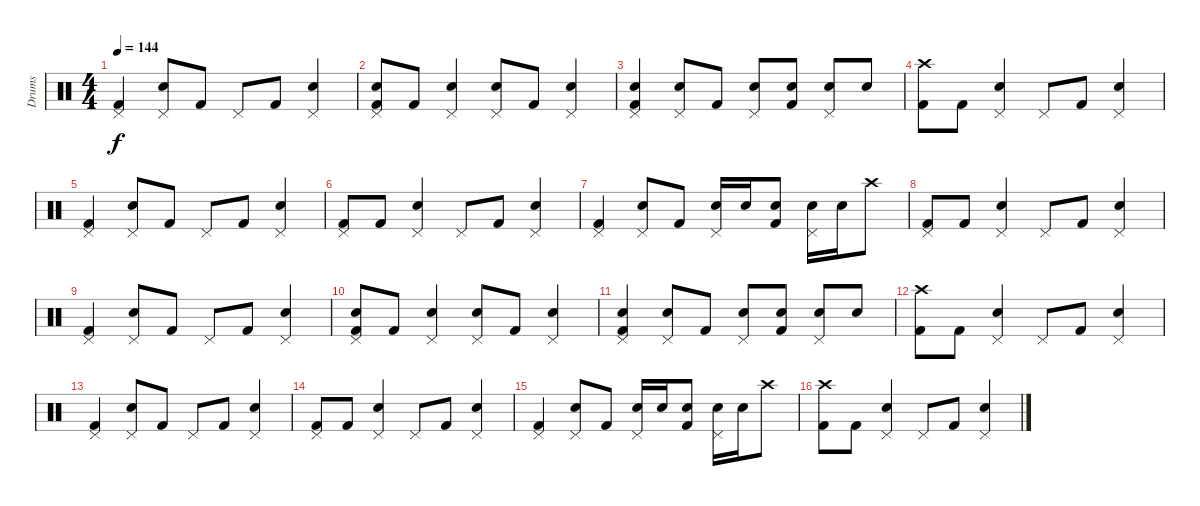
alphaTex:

\track ("Drums" "Drums") {instrument percussion}
\staff {score}
\articulation defaults
\ts (4 4)
\tempo 144
\clef neutral
\ks c
("Kick (hit) 2" "Pedal Hi-Hat (hit)").4{dy f} ("Electric Snare (hit)" "Pedal Hi-Hat (hit)").8 "Kick (hit) 2".8 "Pedal Hi-Hat (hit)".8 "Kick (hit) 2".8 ("Electric Snare (hit)" "Pedal Hi-Hat (hit)").4 |
("Electric Snare (hit)" "Pedal Hi-Hat (hit)" "Kick (hit) 2").8 "Kick (hit) 2".8 ("Pedal Hi-Hat (hit)" "Electric Snare (hit)").4 ("Electric Snare (hit)" "Pedal Hi-Hat (hit)").8 "Kick (hit) 2".8 ("Pedal Hi-Hat (hit)" "Electric Snare (hit)").4 |
("Electric Snare (hit)" "Kick (hit) 2" "Pedal Hi-Hat (hit)").4 ("Electric Snare (hit)" "Pedal Hi-Hat (hit)").8 "Kick (hit) 2".8 ("Electric Snare (hit)" "Pedal Hi-Hat (hit)").8 ("Electric Snare (hit)" "Kick (hit) 2").8 ("Electric Snare (hit)" "Pedal Hi-Hat (hit)").8 "Electric Snare (hit)".8 |
("Kick (hit) 2" "Crash high (hit)").8 "Kick (hit) 2".8 ("Pedal Hi-Hat (hit)" "Electric Snare (hit)").4 "Pedal Hi-Hat (hit)".8 "Kick (hit) 2".8 ("Pedal Hi-Hat (hit)" "Electric Snare (hit)").4 |
("Kick (hit) 2" "Pedal Hi-Hat (hit)").4 ("Electric Snare (hit)" "Pedal Hi-Hat (hit)").8 "Kick (hit) 2".8 "Pedal Hi-Hat (hit)".8 "Kick (hit) 2".8 ("Electric Snare (hit)" "Pedal Hi-Hat (hit)").4 |
("Pedal Hi-Hat (hit)" "Kick (hit) 2").8 "Kick (hit) 2".8 ("Pedal Hi-Hat (hit)" "Electric Snare (hit)").4 "Pedal Hi-Hat (hit)".8 "Kick (hit) 2".8 ("Pedal Hi-Hat (hit)" "Electric Snare (hit)").4 |
("Kick (hit) 2" "Pedal Hi-Hat (hit)").4 ("Electric Snare (hit)" "Pedal Hi-Hat (hit)").8 "Kick (hit) 2".8 ("Electric Snare (hit)" "Pedal Hi-Hat (hit)").16 "Electric Snare (hit)".16 ("Electric Snare (hit)" "Kick (hit) 2").8 ("Electric Snare (hit)" "Pedal Hi-Hat (hit)").16 "Electric Snare (hit)".16 "Crash high (hit)".8 |
("Pedal Hi-Hat (hit)" "Kick (hit) 2").8 "Kick (hit) 2".8 ("Pedal Hi-Hat (hit)" "Electric Snare (hit)").4 "Pedal Hi-Hat (hit)".8 "Kick (hit) 2".8 ("Pedal Hi-Hat (hit)" "Electric Snare (hit)").4 |
("Kick (hit) 2" "Pedal Hi-Hat (hit)").4 ("Electric Snare (hit)" "Pedal Hi-Hat (hit)").8 "Kick (hit) 2".8 "Pedal Hi-Hat (hit)".8 "Kick (hit) 2".8 ("Electric Snare (hit)" "Pedal Hi-Hat (hit)").4 |
("Electric Snare (hit)" "Pedal Hi-Hat (hit)" "Kick (hit) 2").8 "Kick (hit) 2".8 ("Pedal Hi-Hat (hit)" "Electric Snare (hit)").4 ("Electric Snare (hit)" "Pedal Hi-Hat (hit)").8 "Kick (hit) 2".8 ("Pedal Hi-Hat (hit)" "Electric Snare (hit)").4 |
("Electric Snare (hit)" "Kick (hit) 2" "Pedal Hi-Hat (hit)").4 ("Electric Snare (hit)" "Pedal Hi-Hat (hit)").8 "Kick (hit) 2".8 ("Electric Snare (hit)" "Pedal Hi-Hat (hit)").8 ("Electric Snare (hit)" "Kick (hit) 2").8 ("Electric Snare (hit)" "Pedal Hi-Hat (hit)").8 "Electric Snare (hit)".8 |
("Crash high (hit)" "Kick (hit) 2").8 "Kick (hit) 2".8 ("Pedal Hi-Hat (hit)" "Electric Snare (hit)").4 "Pedal Hi-Hat (hit)".8 "Kick (hit) 2".8 ("Pedal Hi-Hat (hit)" "Electric Snare (hit)").4 |
("Kick (hit) 2" "Pedal Hi-Hat (hit)").4 ("Electric Snare (hit)" "Pedal Hi-Hat (hit)").8 "Kick (hit) 2".8 "Pedal Hi-Hat (hit)".8 "Kick (hit) 2".8 ("Electric Snare (hit)" "Pedal Hi-Hat (hit)").4 |
("Pedal Hi-Hat (hit)" "Kick (hit) 2").8 "Kick (hit) 2".8 ("Pedal Hi-Hat (hit)" "Electric Snare (hit)").4 "Pedal Hi-Hat (hit)".8 "Kick (hit) 2".8 ("Pedal Hi-Hat (hit)" "Electric Snare (hit)").4 |
("Kick (hit) 2" "Pedal Hi-Hat (hit)").4 ("Electric Snare (hit)" "Pedal Hi-Hat (hit)").8 "Kick (hit) 2".8 ("Electric Snare (hit)" "Pedal Hi-Hat (hit)").16 "Electric Snare (hit)".16 ("Electric Snare (hit)" "Kick (hit) 2").8 ("Electric Snare (hit)" "Pedal Hi-Hat (hit)").16 "Electric Snare (hit)".16 "Crash high (hit)".8 |
("Crash high (hit)" "Kick (hit) 2").8 "Kick (hit) 2".8 ("Pedal Hi-Hat (hit)" "Electric Snare (hit)").4 "Pedal Hi-Hat (hit)".8 "Kick (hit) 2".8 ("Pedal Hi-Hat (hit)" "Electric Snare (hit)").4
